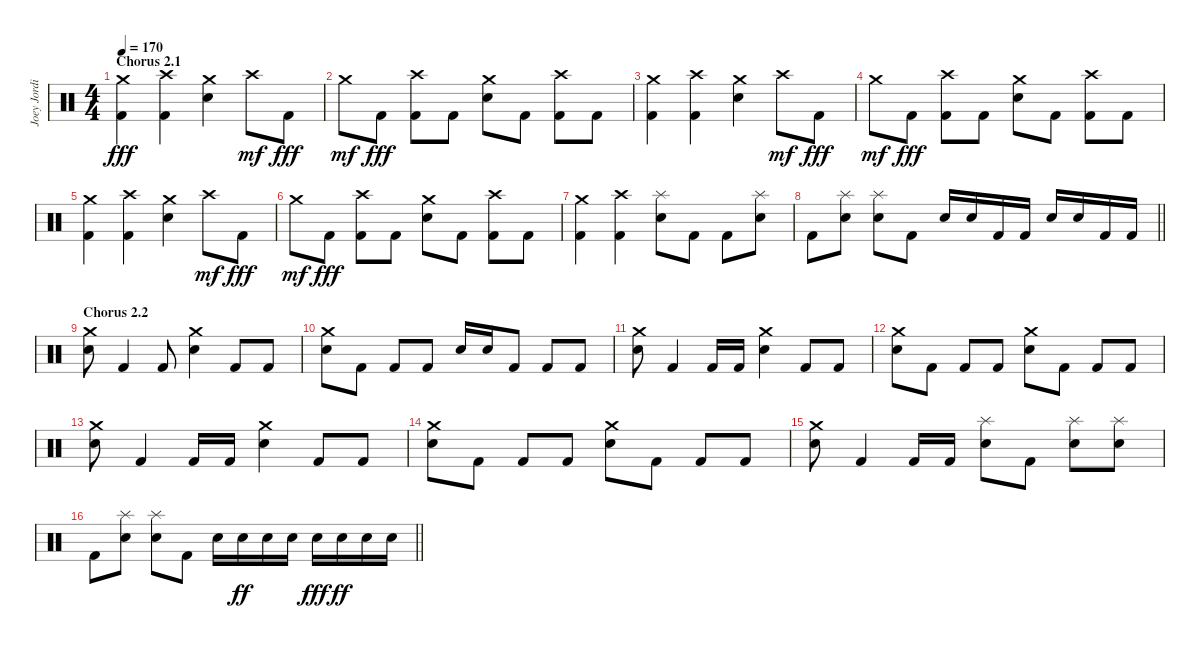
\track ("Joey Jordison" "Joey Jordi") {instrument percussion}
\staff {score}
\articulation defaults
\ts (4 4)
\section ("" "Chorus 2.1")
\tempo 170
\clef neutral
\ks c
("Crash medium (hit)" "Kick (hit) 2").4{dy fff} ("Crash high (hit)" "Kick (hit) 2").4 ("Crash medium (hit)" "Electric Snare (hit)").4 "Crash high (hit)".8{dy mf} "Kick (hit) 2".8{dy fff} |
"Crash medium (hit)".8{dy mf} "Kick (hit) 2".8{dy fff} ("Crash high (hit)" "Kick (hit) 2").8 "Kick (hit) 2".8 ("Crash medium (hit)" "Electric Snare (hit)").8 "Kick (hit) 2".8 ("Crash high (hit)" "Kick (hit) 2").8 "Kick (hit) 2".8 |
("Crash medium (hit)" "Kick (hit) 2").4 ("Crash high (hit)" "Kick (hit) 2").4 ("Crash medium (hit)" "Electric Snare (hit)").4 "Crash high (hit)".8{dy mf} "Kick (hit) 2".8{dy fff} |
"Crash medium (hit)".8{dy mf} "Kick (hit) 2".8{dy fff} ("Crash high (hit)" "Kick (hit) 2").8 "Kick (hit) 2".8 ("Crash medium (hit)" "Electric Snare (hit)").8 "Kick (hit) 2".8 ("Crash high (hit)" "Kick (hit) 2").8 "Kick (hit) 2".8 |
("Crash medium (hit)" "Kick (hit) 2").4 ("Crash high (hit)" "Kick (hit) 2").4 ("Crash medium (hit)" "Electric Snare (hit)").4 "Crash high (hit)".8{dy mf} "Kick (hit) 2".8{dy fff} |
"Crash medium (hit)".8{dy mf} "Kick (hit) 2".8{dy fff} ("Crash high (hit)" "Kick (hit) 2").8 "Kick (hit) 2".8 ("Crash medium (hit)" "Electric Snare (hit)").8 "Kick (hit) 2".8 ("Crash high (hit)" "Kick (hit) 2").8 "Kick (hit) 2".8 |
("Crash medium (hit)" "Kick (hit) 2").4 ("Crash high (hit)" "Kick (hit) 2").4 ("Splash (hit)" "Electric Snare (hit)").8 "Kick (hit) 2".8 "Kick (hit) 2".8 ("Splash (hit)" "Electric Snare (hit)").8 |
\barLineRight lightlight "Kick (hit) 2".8
("Splash (hit)" "Electric Snare (hit)").8 ("Splash (hit)" "Electric Snare (hit)").8 "Kick (hit) 2".8 "Electric Snare (hit)".16 "Electric Snare (hit)".16 "Kick (hit) 2".16 "Kick (hit) 2".16 "Electric Snare (hit)".16 "Electric Snare (hit)".16 "Kick (hit) 2".16 "Kick (hit) 2".16 |
\section ("" "Chorus 2.2")
("Crash medium (hit)" "Electric Snare (hit)").8 "Kick (hit) 2".4 "Kick (hit) 2".8 ("Crash medium (hit)" "Electric Snare (hit)").4 "Kick (hit) 2".8 "Kick (hit) 2".8 |
("Crash medium (hit)" "Electric Snare (hit)").8 "Kick (hit) 2".8 "Kick (hit) 2".8 "Kick (hit) 2".8 "Electric Snare (hit)".16 "Electric Snare (hit)".16 "Kick (hit) 2".8 "Kick (hit) 2".8 "Kick (hit) 2".8 |
("Crash medium (hit)" "Electric Snare (hit)").8 "Kick (hit) 2".4 "Kick (hit) 2".16 "Kick (hit) 2".16 ("Crash medium (hit)" "Electric Snare (hit)").4 "Kick (hit) 2".8 "Kick (hit) 2".8 |
("Crash medium (hit)" "Electric Snare (hit)").8 "Kick (hit) 2".8 "Kick (hit) 2".8 "Kick (hit) 2".8 ("Crash medium (hit)" "Electric Snare (hit)").8 "Kick (hit) 2".8 "Kick (hit) 2".8 "Kick (hit) 2".8 |
("Crash medium (hit)" "Electric Snare (hit)").8 "Kick (hit) 2".4 "Kick (hit) 2".16 "Kick (hit) 2".16 ("Crash medium (hit)" "Electric Snare (hit)").4 "Kick (hit) 2".8 "Kick (hit) 2".8 |
("Crash medium (hit)" "Electric Snare (hit)").8 "Kick (hit) 2".8 "Kick (hit) 2".8 "Kick (hit) 2".8 ("Crash medium (hit)" "Electric Snare (hit)").8 "Kick (hit) 2".8 "Kick (hit) 2".8 "Kick (hit) 2".8 |
("Crash medium (hit)" "Electric Snare (hit)").8 "Kick (hit) 2".4 "Kick (hit) 2".16 "Kick (hit) 2".16 ("Splash (hit)" "Electric Snare (hit)").8 "Kick (hit) 2".8 ("Splash (hit)" "Electric Snare (hit)").8 ("Splash (hit)" "Electric Snare (hit)").8 |
\barLineRight lightlight "Kick (hit) 2".8
("Splash (hit)" "Electric Snare (hit)").8 ("Splash (hit)" "Electric Snare (hit)").8 "Kick (hit) 2".8 "Electric Snare (hit)".16 "Electric Snare (hit)".16{dy ff} "Electric Snare (hit)".16 "Electric Snare (hit)".16 "Electric Snare (hit)".16{dy fff} "Electric Snare (hit)".16{dy ff} "Electric Snare (hit)".16 "Electric Snare (hit)".16
